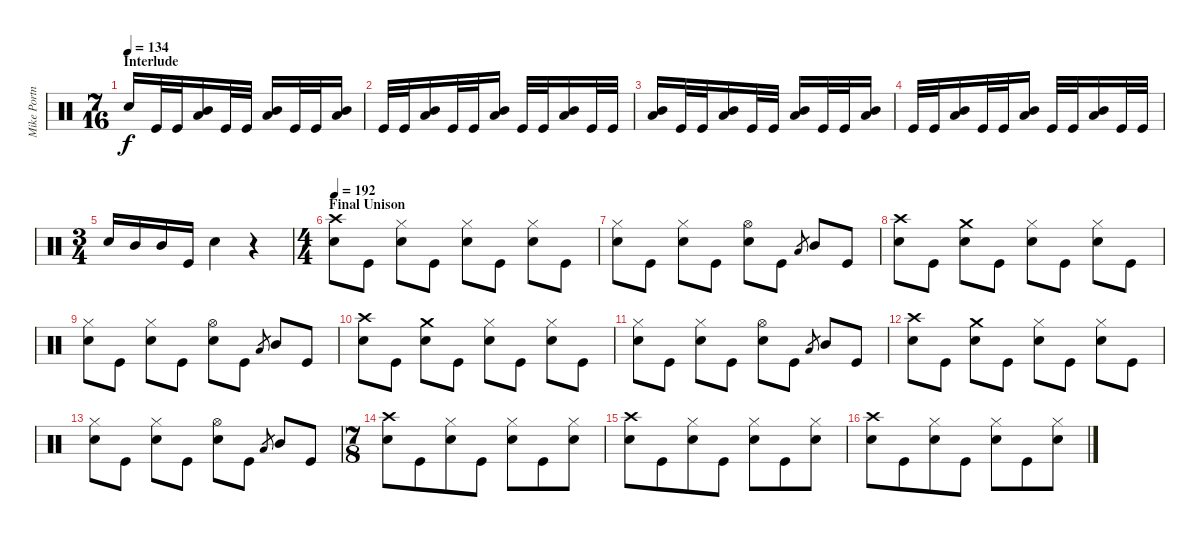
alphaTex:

\track ("Mike Portnoy" "Mike Portn") {instrument percussion}
\staff {score}
\articulation defaults
\ts (7 16)
\section ("" "Interlude")
\tempo 134
\clef neutral
\ks c "Electric Snare (hit)".16{dy f} "Kick (hit)".32 "Kick (hit)".32
("Mid Tom (hit)" "Low Tom (hit)").16 "Kick (hit)".32 "Kick (hit)".32 ("Mid Tom (hit)" "Low Tom (hit)").16 "Kick (hit)".32 "Kick (hit)".32 ("Mid Tom (hit)" "Low Tom (hit)").16 |
"Kick (hit)".32 "Kick (hit)".32 ("Mid Tom (hit)" "Low Tom (hit)").16 "Kick (hit)".32 "Kick (hit)".32 ("Mid Tom (hit)" "Low Tom (hit)").16 "Kick (hit)".32 "Kick (hit)".32 ("Mid Tom (hit)" "Low Tom (hit)").16 "Kick (hit)".32 "Kick (hit)".32 |
("Mid Tom (hit)" "Low Tom (hit)").16 "Kick (hit)".32 "Kick (hit)".32 ("Mid Tom (hit)" "Low Tom (hit)").16 "Kick (hit)".32 "Kick (hit)".32 ("Mid Tom (hit)" "Low Tom (hit)").16 "Kick (hit)".32 "Kick (hit)".32 ("Mid Tom (hit)" "Low Tom (hit)").16 |
"Kick (hit)".32 "Kick (hit)".32 ("Mid Tom (hit)" "Low Tom (hit)").16 "Kick (hit)".32 "Kick (hit)".32 ("Mid Tom (hit)" "Low Tom (hit)").16 "Kick (hit)".32 "Kick (hit)".32 ("Mid Tom (hit)" "Low Tom (hit)").16 "Kick (hit)".32 "Kick (hit)".32 |
\ts (3 4)
"Electric Snare (hit)".16 "Mid Tom (hit)".16 "Mid Tom (hit)".16 "Kick (hit)".16 "Electric Snare (hit)".4 r.4 |
\ts (4 4)
\section ("" "Final Unison")
\tempo 192
("Crash high (hit)" "Electric Snare (hit)").8 "Kick (hit)".8 ("Hi-Hat (closed)" "Electric Snare (hit)").8 "Kick (hit)".8 ("Hi-Hat (closed)" "Electric Snare (hit)").8 "Kick (hit)".8 ("Hi-Hat (closed)" "Electric Snare (hit)").8 "Kick (hit)".8 |
("Hi-Hat (closed)" "Electric Snare (hit)").8 "Kick (hit)".8 ("Hi-Hat (closed)" "Electric Snare (hit)").8 "Kick (hit)".8 ("Hi-Hat (open)" "Electric Snare (hit)").8 "Kick (hit)".8 "Low Tom (hit)".8{gr} "Mid Tom (hit)".8 "Kick (hit)".8 |
("Crash high (hit)" "Electric Snare (hit)").8 "Kick (hit)".8 ("Crash medium (hit)" "Electric Snare (hit)").8 "Kick (hit)".8 ("Hi-Hat (closed)" "Electric Snare (hit)").8 "Kick (hit)".8 ("Hi-Hat (closed)" "Electric Snare (hit)").8 "Kick (hit)".8 |
("Hi-Hat (closed)" "Electric Snare (hit)").8 "Kick (hit)".8 ("Hi-Hat (closed)" "Electric Snare (hit)").8 "Kick (hit)".8 ("Hi-Hat (open)" "Electric Snare (hit)").8 "Kick (hit)".8 "Low Tom (hit)".8{gr} "Mid Tom (hit)".8 "Kick (hit)".8 |
("Crash high (hit)" "Electric Snare (hit)").8 "Kick (hit)".8 ("Crash medium (hit)" "Electric Snare (hit)").8 "Kick (hit)".8 ("Hi-Hat (closed)" "Electric Snare (hit)").8 "Kick (hit)".8 ("Hi-Hat (closed)" "Electric Snare (hit)").8 "Kick (hit)".8 |
("Hi-Hat (closed)" "Electric Snare (hit)").8 "Kick (hit)".8 ("Hi-Hat (closed)" "Electric Snare (hit)").8 "Kick (hit)".8 ("Hi-Hat (open)" "Electric Snare (hit)").8 "Kick (hit)".8 "Low Tom (hit)".8{gr} "Mid Tom (hit)".8 "Kick (hit)".8 |
("Crash high (hit)" "Electric Snare (hit)").8 "Kick (hit)".8 ("Crash medium (hit)" "Electric Snare (hit)").8 "Kick (hit)".8 ("Hi-Hat (closed)" "Electric Snare (hit)").8 "Kick (hit)".8 ("Hi-Hat (closed)" "Electric Snare (hit)").8 "Kick (hit)".8 |
("Hi-Hat (closed)" "Electric Snare (hit)").8 "Kick (hit)".8 ("Hi-Hat (closed)" "Electric Snare (hit)").8 "Kick (hit)".8 ("Hi-Hat (open)" "Electric Snare (hit)").8 "Kick (hit)".8 "Low Tom (hit)".8{gr} "Mid Tom (hit)".8 "Kick (hit)".8 |
\ts (7 8)
("Crash high (hit)" "Electric Snare (hit)").8 "Kick (hit)".8 ("Hi-Hat (closed)" "Electric Snare (hit)").8 "Kick (hit)".8 ("Hi-Hat (closed)" "Electric Snare (hit)").8 "Kick (hit)".8 ("Hi-Hat (closed)" "Electric Snare (hit)").8 |
("Crash high (hit)" "Electric Snare (hit)").8 "Kick (hit)".8 ("Hi-Hat (closed)" "Electric Snare (hit)").8 "Kick (hit)".8 ("Hi-Hat (closed)" "Electric Snare (hit)").8 "Kick (hit)".8 ("Hi-Hat (closed)" "Electric Snare (hit)").8 |
("Crash high (hit)" "Electric Snare (hit)").8 "Kick (hit)".8 ("Hi-Hat (closed)" "Electric Snare (hit)").8 "Kick (hit)".8 ("Hi-Hat (closed)" "Electric Snare (hit)").8 "Kick (hit)".8 ("Hi-Hat (closed)" "Electric Snare (hit)").8
